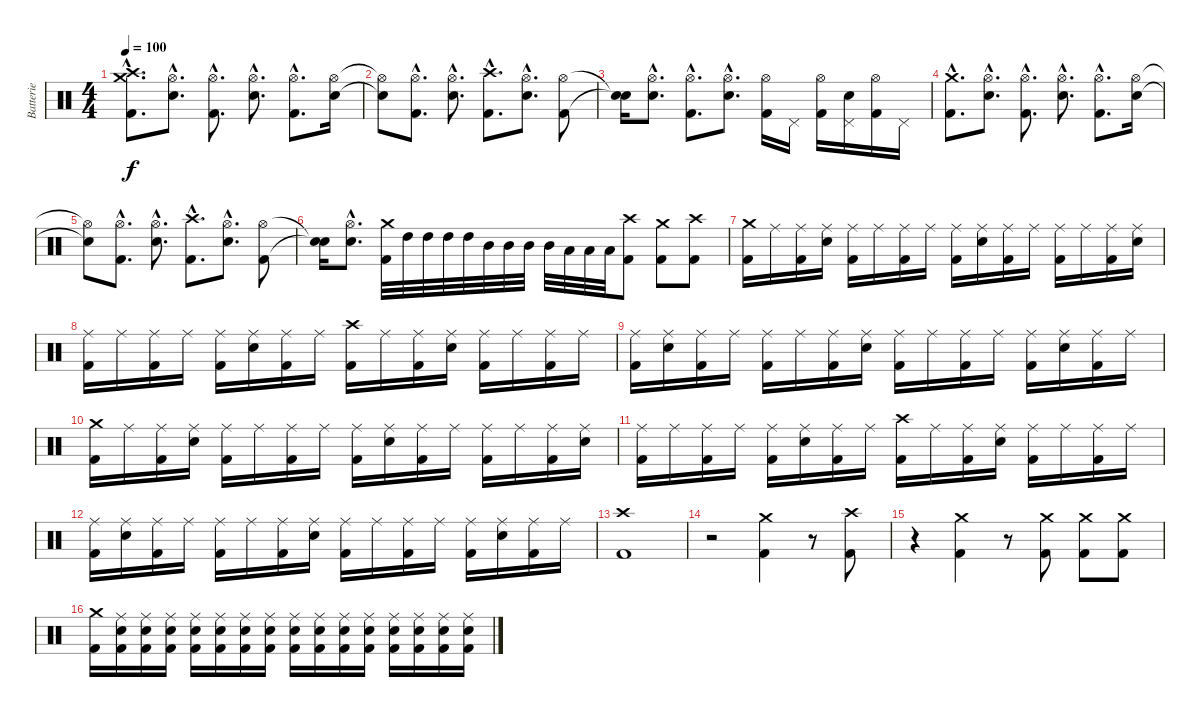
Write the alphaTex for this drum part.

\track ("Batterie" "Batterie") {instrument percussion}
\staff {score}
\articulation defaults
\ts (4 4)
\tempo 100
\clef neutral
\ks c
("Crash high (hit)"{hac} "Crash medium (hit)"{hac} "Kick (hit) 2"{hac}).8{d dy f} ("Hi-Hat (open)"{hac} "Electric Snare (hit)"{hac}).8{d} ("Hi-Hat (open)"{hac} "Kick (hit) 2"{hac}).8{d} ("Hi-Hat (open)"{hac} "Electric Snare (hit)"{hac}).8{d} ("Hi-Hat (open)"{hac} "Kick (hit) 2"{hac}).8{d} ("Hi-Hat (open)" "Electric Snare (hit)").16 |
("Hi-Hat (open)"{t} "Snare (hit)"{t}).8 ("Hi-Hat (open)"{hac} "Kick (hit) 2"{hac}).8{d} ("Hi-Hat (open)"{hac} "Electric Snare (hit)"{hac}).8{d} ("Crash high (hit)"{hac} "Kick (hit) 2"{hac}).8{d} ("Hi-Hat (open)"{hac} "Electric Snare (hit)"{hac}).8{d} ("Hi-Hat (open)" "Kick (hit) 2").8 |
("Snare (hit)"{t} "Snare (hit)"{t}).16 ("Hi-Hat (open)"{hac} "Electric Snare (hit)"{hac}).8{d} ("Hi-Hat (open)"{hac} "Kick (hit) 2"{hac}).8{d} ("Hi-Hat (open)"{hac} "Electric Snare (hit)"{hac}).8{d} ("Hi-Hat (open)" "Kick (hit) 2").16 "Pedal Hi-Hat (hit)".16 ("Hi-Hat (open)" "Kick (hit) 2").16 ("Pedal Hi-Hat (hit)" "Electric Snare (hit)").16 ("Hi-Hat (open)" "Kick (hit) 2").16 "Pedal Hi-Hat (hit)".16 |
("Crash medium (hit)"{hac} "Kick (hit) 2"{hac}).8{d} ("Hi-Hat (open)"{hac} "Electric Snare (hit)"{hac}).8{d} ("Hi-Hat (open)"{hac} "Kick (hit) 2"{hac}).8{d} ("Hi-Hat (open)"{hac} "Electric Snare (hit)"{hac}).8{d} ("Hi-Hat (open)"{hac} "Kick (hit) 2"{hac}).8{d} ("Hi-Hat (open)" "Electric Snare (hit)").16 |
("Hi-Hat (open)"{t} "Snare (hit)"{t}).8 ("Hi-Hat (open)"{hac} "Kick (hit) 2"{hac}).8{d} ("Hi-Hat (open)"{hac} "Electric Snare (hit)"{hac}).8{d} ("Crash high (hit)"{hac} "Kick (hit) 2"{hac}).8{d} ("Hi-Hat (open)"{hac} "Electric Snare (hit)"{hac}).8{d} ("Hi-Hat (open)" "Kick (hit) 2").8 |
("Snare (hit)"{t} "Snare (hit)"{t}).16 ("Hi-Hat (open)"{hac} "Electric Snare (hit)"{hac}).8{d} ("Crash medium (hit)" "Kick (hit) 2").32 "High Tom (hit)".32 "High Tom (hit)".32 "High Tom (hit)".32 "High Tom (hit)".32 "Mid Tom (hit)".32 "Mid Tom (hit)".32 "Mid Tom (hit)".32 "Mid Tom (hit)".32 "Low Tom (hit)".32 "Low Tom (hit)".32 "Low Tom (hit)".32 ("Crash high (hit)" "Kick (hit) 2").8 ("Crash medium (hit)" "Kick (hit) 2").8 ("Crash high (hit)" "Kick (hit) 2").8 |
("Crash medium (hit)" "Kick (hit) 2").16 "Ride (middle)".16 ("Ride (middle)" "Kick (hit) 2").16 ("Ride (middle)" "Electric Snare (hit)").16 ("Ride (middle)" "Kick (hit) 2").16 "Ride (middle)".16 ("Ride (middle)" "Kick (hit) 2").16 "Ride (middle)".16 ("Ride (middle)" "Kick (hit) 2").16 ("Ride (middle)" "Electric Snare (hit)").16 ("Ride (middle)" "Kick (hit) 2").16 "Ride (middle)".16 ("Ride (middle)" "Kick (hit) 2").16 "Ride (middle)".16 ("Ride (middle)" "Kick (hit) 2").16 ("Ride (middle)" "Electric Snare (hit)").16 |
("Ride (middle)" "Kick (hit) 2").16 "Ride (middle)".16 ("Ride (middle)" "Kick (hit) 2").16 "Ride (middle)".16 ("Ride (middle)" "Kick (hit) 2").16 ("Ride (middle)" "Electric Snare (hit)").16 ("Ride (middle)" "Kick (hit) 2").16 "Ride (middle)".16 ("Crash high (hit)" "Kick (hit) 2").16 "Ride (middle)".16 ("Ride (middle)" "Kick (hit) 2").16 ("Ride (middle)" "Electric Snare (hit)").16 ("Ride (middle)" "Kick (hit) 2").16 "Ride (middle)".16 ("Ride (middle)" "Kick (hit) 2").16 "Ride (middle)".16 |
("Ride (middle)" "Kick (hit) 2").16 ("Ride (middle)" "Electric Snare (hit)").16 ("Ride (middle)" "Kick (hit) 2").16 "Ride (middle)".16 ("Ride (middle)" "Kick (hit) 2").16 "Ride (middle)".16 ("Ride (middle)" "Kick (hit) 2").16 ("Ride (middle)" "Electric Snare (hit)").16 ("Ride (middle)" "Kick (hit) 2").16 "Ride (middle)".16 ("Ride (middle)" "Kick (hit) 2").16 "Ride (middle)".16 ("Ride (middle)" "Kick (hit) 2").16 ("Ride (middle)" "Electric Snare (hit)").16 ("Ride (middle)" "Kick (hit) 2").16 "Ride (middle)".16 |
("Crash medium (hit)" "Kick (hit) 2").16 "Ride (middle)".16 ("Ride (middle)" "Kick (hit) 2").16 ("Ride (middle)" "Electric Snare (hit)").16 ("Ride (middle)" "Kick (hit) 2").16 "Ride (middle)".16 ("Ride (middle)" "Kick (hit) 2").16 "Ride (middle)".16 ("Ride (middle)" "Kick (hit) 2").16 ("Ride (middle)" "Electric Snare (hit)").16 ("Ride (middle)" "Kick (hit) 2").16 "Ride (middle)".16 ("Ride (middle)" "Kick (hit) 2").16 "Ride (middle)".16 ("Ride (middle)" "Kick (hit) 2").16 ("Ride (middle)" "Electric Snare (hit)").16 |
("Ride (middle)" "Kick (hit) 2").16 "Ride (middle)".16 ("Ride (middle)" "Kick (hit) 2").16 "Ride (middle)".16 ("Ride (middle)" "Kick (hit) 2").16 ("Ride (middle)" "Electric Snare (hit)").16 ("Ride (middle)" "Kick (hit) 2").16 "Ride (middle)".16 ("Crash high (hit)" "Kick (hit) 2").16 "Ride (middle)".16 ("Ride (middle)" "Kick (hit) 2").16 ("Ride (middle)" "Electric Snare (hit)").16 ("Ride (middle)" "Kick (hit) 2").16 "Ride (middle)".16 ("Ride (middle)" "Kick (hit) 2").16 "Ride (middle)".16 |
("Ride (middle)" "Kick (hit) 2").16 ("Ride (middle)" "Electric Snare (hit)").16 ("Ride (middle)" "Kick (hit) 2").16 "Ride (middle)".16 ("Ride (middle)" "Kick (hit) 2").16 "Ride (middle)".16 ("Ride (middle)" "Kick (hit) 2").16 ("Ride (middle)" "Electric Snare (hit)").16 ("Ride (middle)" "Kick (hit) 2").16 "Ride (middle)".16 ("Ride (middle)" "Kick (hit) 2").16 "Ride (middle)".16 ("Ride (middle)" "Kick (hit) 2").16 ("Ride (middle)" "Electric Snare (hit)").16 ("Ride (middle)" "Kick (hit) 2").16 "Ride (middle)".16 |
("Crash high (hit)" "Kick (hit) 2").1 |
r.2 ("Crash medium (hit)" "Kick (hit) 2").4 r.8 ("Crash high (hit)" "Kick (hit) 2").8 |
r.4 ("Crash medium (hit)" "Kick (hit) 2").4 r.8 ("Crash medium (hit)" "Kick (hit) 2").8 ("Crash medium (hit)" "Kick (hit) 2").8 ("Crash medium (hit)" "Kick (hit) 2").8 |
("Crash medium (hit)" "Kick (hit) 2").16 ("Ride (middle)" "Electric Snare (hit)" "Kick (hit) 2").16 ("Ride (middle)" "Electric Snare (hit)" "Kick (hit) 2").16 ("Ride (middle)" "Electric Snare (hit)" "Kick (hit) 2").16 ("Ride (middle)" "Electric Snare (hit)" "Kick (hit) 2").16 ("Ride (middle)" "Electric Snare (hit)" "Kick (hit) 2").16 ("Ride (middle)" "Electric Snare (hit)" "Kick (hit) 2").16 ("Ride (middle)" "Electric Snare (hit)" "Kick (hit) 2").16 ("Ride (middle)" "Electric Snare (hit)" "Kick (hit) 2").16 ("Ride (middle)" "Electric Snare (hit)" "Kick (hit) 2").16 ("Ride (middle)" "Electric Snare (hit)" "Kick (hit) 2").16 ("Ride (middle)" "Electric Snare (hit)" "Kick (hit) 2").16 ("Ride (middle)" "Electric Snare (hit)" "Kick (hit) 2").16 ("Ride (middle)" "Electric Snare (hit)" "Kick (hit) 2").16 ("Ride (middle)" "Electric Snare (hit)" "Kick (hit) 2").16 ("Ride (middle)" "Electric Snare (hit)" "Kick (hit) 2").16
